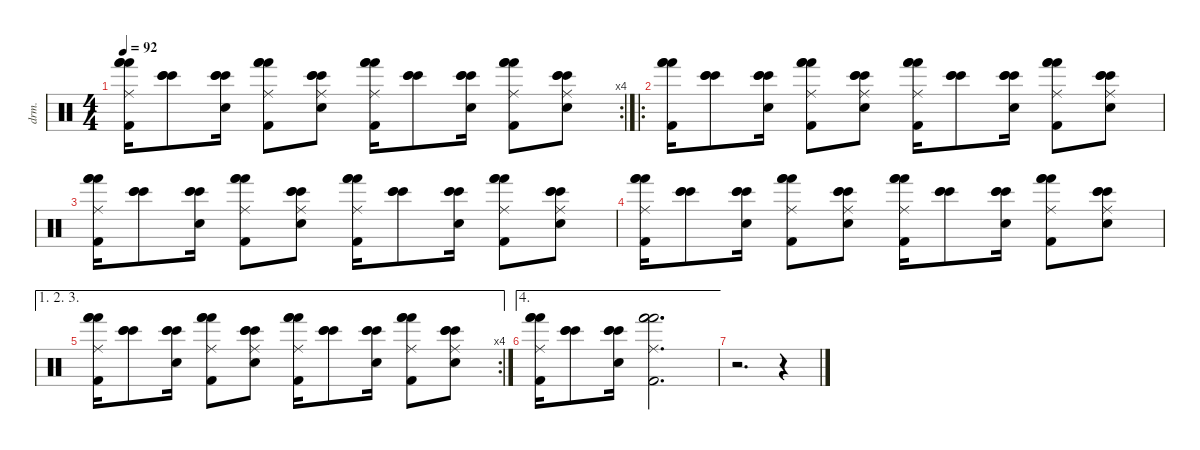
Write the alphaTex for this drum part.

\defaultSystemsLayout 4
\hideDynamics
\bracketExtendMode nobrackets
\otherSystemsTrackNameOrientation horizontal
\track ("Percussions" "drm.") {instrument percussion}
\staff {score}
\articulation defaults
\rc 4
\ts (4 4)
\tempo 92
\clef neutral
\ks c
("Hand (hit)" "Hand (hit)" "Hand (hit)" "Kick (hit) 2" "Ride (middle)").16{dy fff beam Down} ("Bongo High (hit)" "Bongo High (hit)" "Bongo High (hit)").8{beam Down} ("Bongo High (hit)" "Bongo High (hit)" "Snare (hit) 2" "Bongo High (hit)").16{beam Down} ("Hand (hit)" "Hand (hit)" "Hand (hit)" "Kick (hit) 2" "Ride (middle)").8{beam Down} ("Bongo High (hit)" "Bongo High (hit)" "Snare (hit) 2" "Bongo High (hit)" "Ride (middle)").8{beam Down} ("Hand (hit)" "Hand (hit)" "Hand (hit)" "Kick (hit) 2" "Ride (middle)").16{beam Down} ("Bongo High (hit)" "Bongo High (hit)" "Bongo High (hit)").8{beam Down} ("Bongo High (hit)" "Bongo High (hit)" "Snare (hit) 2" "Bongo High (hit)").16{beam Down} ("Hand (hit)" "Hand (hit)" "Hand (hit)" "Kick (hit) 2" "Ride (middle)").8{beam Down} ("Bongo High (hit)" "Bongo High (hit)" "Snare (hit) 2" "Bongo High (hit)" "Ride (middle)").8{beam Down} |
\ro
("Hand (hit)" "Hand (hit)" "Hand (hit)" "Kick (hit) 2").16{beam Down} ("Bongo High (hit)" "Bongo High (hit)" "Bongo High (hit)").8{beam Down} ("Bongo High (hit)" "Bongo High (hit)" "Snare (hit) 2" "Bongo High (hit)").16{beam Down} ("Hand (hit)" "Hand (hit)" "Hand (hit)" "Kick (hit) 2" "Ride (middle)").8{beam Down} ("Bongo High (hit)" "Bongo High (hit)" "Snare (hit) 2" "Bongo High (hit)" "Ride (middle)").8{beam Down} ("Hand (hit)" "Hand (hit)" "Hand (hit)" "Kick (hit) 2" "Ride (middle)").16{beam Down} ("Bongo High (hit)" "Bongo High (hit)" "Bongo High (hit)").8{beam Down} ("Bongo High (hit)" "Bongo High (hit)" "Snare (hit) 2" "Bongo High (hit)").16{beam Down} ("Hand (hit)" "Hand (hit)" "Hand (hit)" "Kick (hit) 2" "Ride (middle)").8{beam Down} ("Bongo High (hit)" "Bongo High (hit)" "Snare (hit) 2" "Bongo High (hit)" "Ride (middle)").8{beam Down} |
("Hand (hit)" "Hand (hit)" "Hand (hit)" "Kick (hit) 2" "Ride (middle)").16{beam Down} ("Bongo High (hit)" "Bongo High (hit)" "Bongo High (hit)").8{beam Down} ("Bongo High (hit)" "Bongo High (hit)" "Snare (hit) 2" "Bongo High (hit)").16{beam Down} ("Hand (hit)" "Hand (hit)" "Hand (hit)" "Kick (hit) 2" "Ride (middle)").8{beam Down} ("Bongo High (hit)" "Bongo High (hit)" "Snare (hit) 2" "Bongo High (hit)" "Ride (middle)").8{beam Down} ("Hand (hit)" "Hand (hit)" "Hand (hit)" "Kick (hit) 2" "Ride (middle)").16{beam Down} ("Bongo High (hit)" "Bongo High (hit)" "Bongo High (hit)").8{beam Down} ("Bongo High (hit)" "Bongo High (hit)" "Snare (hit) 2" "Bongo High (hit)").16{beam Down} ("Hand (hit)" "Hand (hit)" "Hand (hit)" "Kick (hit) 2" "Ride (middle)").8{beam Down} ("Bongo High (hit)" "Bongo High (hit)" "Snare (hit) 2" "Bongo High (hit)" "Ride (middle)").8{beam Down} |
("Hand (hit)" "Hand (hit)" "Hand (hit)" "Kick (hit) 2" "Ride (middle)").16{beam Down} ("Bongo High (hit)" "Bongo High (hit)" "Bongo High (hit)").8{beam Down} ("Bongo High (hit)" "Bongo High (hit)" "Snare (hit) 2" "Bongo High (hit)").16{beam Down} ("Hand (hit)" "Hand (hit)" "Hand (hit)" "Kick (hit) 2" "Ride (middle)").8{beam Down} ("Bongo High (hit)" "Bongo High (hit)" "Snare (hit) 2" "Bongo High (hit)" "Ride (middle)").8{beam Down} ("Hand (hit)" "Hand (hit)" "Hand (hit)" "Kick (hit) 2" "Ride (middle)").16{beam Down} ("Bongo High (hit)" "Bongo High (hit)" "Bongo High (hit)").8{beam Down} ("Bongo High (hit)" "Bongo High (hit)" "Snare (hit) 2" "Bongo High (hit)").16{beam Down} ("Hand (hit)" "Hand (hit)" "Hand (hit)" "Kick (hit) 2" "Ride (middle)").8{beam Down} ("Bongo High (hit)" "Bongo High (hit)" "Snare (hit) 2" "Bongo High (hit)" "Ride (middle)").8{beam Down} |
\ae (1 2 3)
\rc 4
("Hand (hit)" "Hand (hit)" "Hand (hit)" "Kick (hit) 2" "Ride (middle)").16{beam Down} ("Bongo High (hit)" "Bongo High (hit)" "Bongo High (hit)").8{beam Down} ("Bongo High (hit)" "Bongo High (hit)" "Snare (hit) 2" "Bongo High (hit)").16{beam Down} ("Hand (hit)" "Hand (hit)" "Hand (hit)" "Kick (hit) 2" "Ride (middle)").8{beam Down} ("Bongo High (hit)" "Bongo High (hit)" "Snare (hit) 2" "Bongo High (hit)" "Ride (middle)").8{beam Down} ("Hand (hit)" "Hand (hit)" "Hand (hit)" "Kick (hit) 2" "Ride (middle)").16{beam Down} ("Bongo High (hit)" "Bongo High (hit)" "Bongo High (hit)").8{beam Down} ("Bongo High (hit)" "Bongo High (hit)" "Snare (hit) 2" "Bongo High (hit)").16{beam Down} ("Hand (hit)" "Hand (hit)" "Hand (hit)" "Kick (hit) 2" "Ride (middle)").8{beam Down} ("Bongo High (hit)" "Bongo High (hit)" "Snare (hit) 2" "Bongo High (hit)" "Ride (middle)").8{beam Down} |
\ae 4
("Hand (hit)" "Hand (hit)" "Hand (hit)" "Kick (hit) 2" "Ride (middle)").16{beam Down} ("Bongo High (hit)" "Bongo High (hit)" "Bongo High (hit)").8{beam Down} ("Bongo High (hit)" "Bongo High (hit)" "Snare (hit) 2" "Bongo High (hit)").16{beam Down} ("Hand (hit)" "Hand (hit)" "Hand (hit)" "Kick (hit) 2" "Ride (middle)").2{d beam Down} |
r.2{d beam Down} r.4{beam Down}
